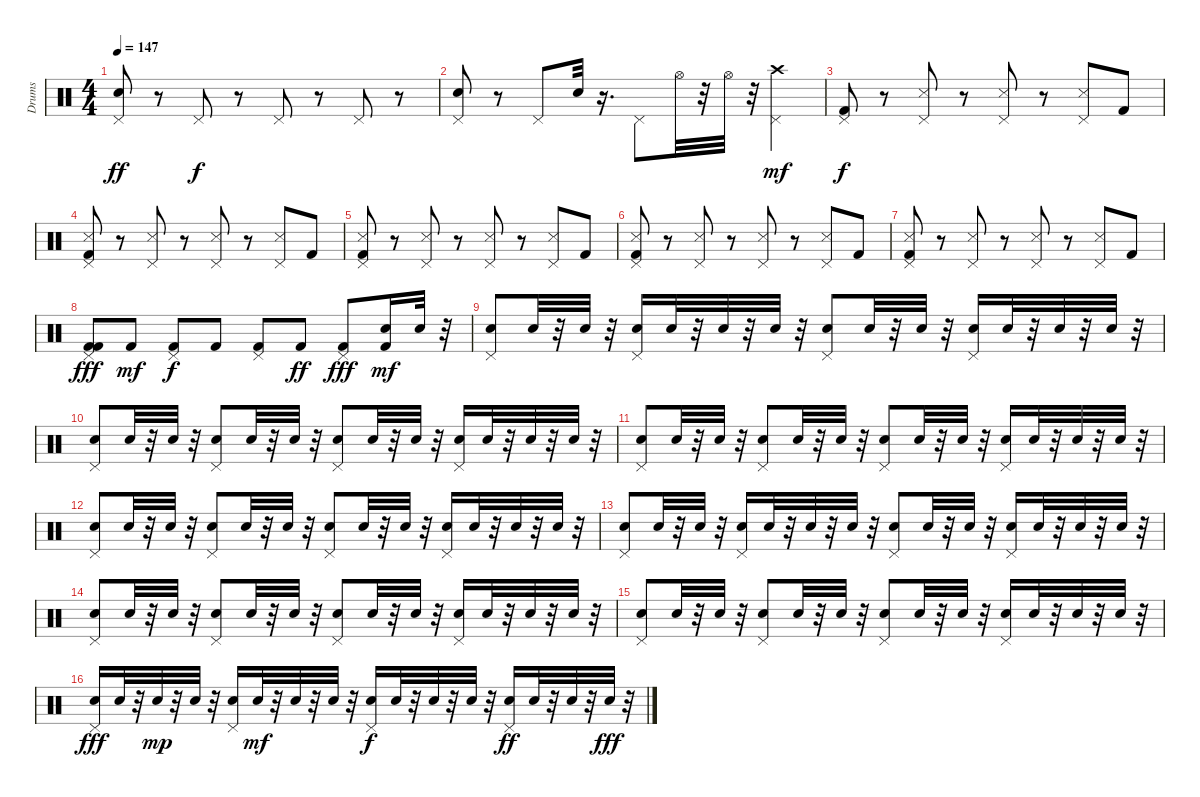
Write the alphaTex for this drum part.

\track ("Drums" "Drums") {instrument percussion}
\staff {score}
\articulation defaults
\ts (4 4)
\tempo 147
\clef neutral
\ks c
("Pedal Hi-Hat (hit)" "Snare (hit) 2").8{dy ff} r.8 "Pedal Hi-Hat (hit)".8{dy f} r.8 "Pedal Hi-Hat (hit)".8 r.8 "Pedal Hi-Hat (hit)".8 r.8 |
("Pedal Hi-Hat (hit)" "Snare (hit) 2").8 r.8 "Pedal Hi-Hat (hit)".8 "Snare (hit) 2".32 r.16{d} "Pedal Hi-Hat (hit)".8 "Hi-Hat (open)".32 r.32 "Hi-Hat (open)".32 r.32 ("Pedal Hi-Hat (hit)" "Crash high (hit)").4{dy mf} |
("Pedal Hi-Hat (hit)" "Kick (hit) 2").8{dy f} r.8 ("Pedal Hi-Hat (hit)" "Snare (side stick) 3").8 r.8 ("Pedal Hi-Hat (hit)" "Snare (side stick) 3").8 r.8 ("Pedal Hi-Hat (hit)" "Snare (side stick) 3").8 "Kick (hit) 2".8 |
("Pedal Hi-Hat (hit)" "Kick (hit) 2" "Snare (side stick) 3").8 r.8 ("Pedal Hi-Hat (hit)" "Snare (side stick) 3").8 r.8 ("Pedal Hi-Hat (hit)" "Snare (side stick) 3").8 r.8 ("Pedal Hi-Hat (hit)" "Snare (side stick) 3").8 "Kick (hit) 2".8 |
("Pedal Hi-Hat (hit)" "Kick (hit) 2" "Snare (side stick) 3").8 r.8 ("Pedal Hi-Hat (hit)" "Snare (side stick) 3").8 r.8 ("Pedal Hi-Hat (hit)" "Snare (side stick) 3").8 r.8 ("Pedal Hi-Hat (hit)" "Snare (side stick) 3").8 "Kick (hit) 2".8 |
("Pedal Hi-Hat (hit)" "Kick (hit) 2" "Snare (side stick) 3").8 r.8 ("Pedal Hi-Hat (hit)" "Snare (side stick) 3").8 r.8 ("Pedal Hi-Hat (hit)" "Snare (side stick) 3").8 r.8 ("Pedal Hi-Hat (hit)" "Snare (side stick) 3").8 "Kick (hit) 2".8 |
("Pedal Hi-Hat (hit)" "Kick (hit) 2" "Snare (side stick) 3").8 r.8 ("Pedal Hi-Hat (hit)" "Snare (side stick) 3").8 r.8 ("Pedal Hi-Hat (hit)" "Snare (side stick) 3").8 r.8 ("Pedal Hi-Hat (hit)" "Snare (side stick) 3").8 "Kick (hit) 2".8 |
("Pedal Hi-Hat (hit)" "Kick (hit) 2" "Kick (hit) 2").8{dy fff} "Kick (hit) 2".8{dy mf} ("Pedal Hi-Hat (hit)" "Kick (hit) 2").8{dy f} "Kick (hit) 2".8 ("Pedal Hi-Hat (hit)" "Kick (hit) 2").8 "Kick (hit) 2".8{dy ff} ("Pedal Hi-Hat (hit)" "Kick (hit) 2").8{dy fff} ("Kick (hit) 2" "Snare (hit) 2").16{dy mf} "Snare (hit) 2".32 r.32 |
("Pedal Hi-Hat (hit)" "Snare (hit) 2").8 "Snare (hit) 2".32 r.32 "Snare (hit) 2".32 r.32 ("Pedal Hi-Hat (hit)" "Snare (hit) 2").16 "Snare (hit) 2".32 r.32 "Snare (hit) 2".32 r.32 "Snare (hit) 2".32 r.32 ("Pedal Hi-Hat (hit)" "Snare (hit) 2").8 "Snare (hit) 2".32 r.32 "Snare (hit) 2".32 r.32 ("Pedal Hi-Hat (hit)" "Snare (hit) 2").16 "Snare (hit) 2".32 r.32 "Snare (hit) 2".32 r.32 "Snare (hit) 2".32 r.32 |
("Pedal Hi-Hat (hit)" "Snare (hit) 2").8 "Snare (hit) 2".32 r.32 "Snare (hit) 2".32 r.32 ("Pedal Hi-Hat (hit)" "Snare (hit) 2").8 "Snare (hit) 2".32 r.32 "Snare (hit) 2".32 r.32 ("Pedal Hi-Hat (hit)" "Snare (hit) 2").8 "Snare (hit) 2".32 r.32 "Snare (hit) 2".32 r.32 ("Pedal Hi-Hat (hit)" "Snare (hit) 2").16 "Snare (hit) 2".32 r.32 "Snare (hit) 2".32 r.32 "Snare (hit) 2".32 r.32 |
("Pedal Hi-Hat (hit)" "Snare (hit) 2").8 "Snare (hit) 2".32 r.32 "Snare (hit) 2".32 r.32 ("Pedal Hi-Hat (hit)" "Snare (hit) 2").8 "Snare (hit) 2".32 r.32 "Snare (hit) 2".32 r.32 ("Pedal Hi-Hat (hit)" "Snare (hit) 2").8 "Snare (hit) 2".32 r.32 "Snare (hit) 2".32 r.32 ("Pedal Hi-Hat (hit)" "Snare (hit) 2").16 "Snare (hit) 2".32 r.32 "Snare (hit) 2".32 r.32 "Snare (hit) 2".32 r.32 |
("Pedal Hi-Hat (hit)" "Snare (hit) 2").8 "Snare (hit) 2".32 r.32 "Snare (hit) 2".32 r.32 ("Pedal Hi-Hat (hit)" "Snare (hit) 2").8 "Snare (hit) 2".32 r.32 "Snare (hit) 2".32 r.32 ("Pedal Hi-Hat (hit)" "Snare (hit) 2").8 "Snare (hit) 2".32 r.32 "Snare (hit) 2".32 r.32 ("Pedal Hi-Hat (hit)" "Snare (hit) 2").16 "Snare (hit) 2".32 r.32 "Snare (hit) 2".32 r.32 "Snare (hit) 2".32 r.32 |
("Pedal Hi-Hat (hit)" "Snare (hit) 2").8 "Snare (hit) 2".32 r.32 "Snare (hit) 2".32 r.32 ("Pedal Hi-Hat (hit)" "Snare (hit) 2").16 "Snare (hit) 2".32 r.32 "Snare (hit) 2".32 r.32 "Snare (hit) 2".32 r.32 ("Pedal Hi-Hat (hit)" "Snare (hit) 2").8 "Snare (hit) 2".32 r.32 "Snare (hit) 2".32 r.32 ("Pedal Hi-Hat (hit)" "Snare (hit) 2").16 "Snare (hit) 2".32 r.32 "Snare (hit) 2".32 r.32 "Snare (hit) 2".32 r.32 |
("Pedal Hi-Hat (hit)" "Snare (hit) 2").8 "Snare (hit) 2".32 r.32 "Snare (hit) 2".32 r.32 ("Pedal Hi-Hat (hit)" "Snare (hit) 2").8 "Snare (hit) 2".32 r.32 "Snare (hit) 2".32 r.32 ("Pedal Hi-Hat (hit)" "Snare (hit) 2").8 "Snare (hit) 2".32 r.32 "Snare (hit) 2".32 r.32 ("Pedal Hi-Hat (hit)" "Snare (hit) 2").16 "Snare (hit) 2".32 r.32 "Snare (hit) 2".32 r.32 "Snare (hit) 2".32 r.32 |
("Pedal Hi-Hat (hit)" "Snare (hit) 2").8 "Snare (hit) 2".32 r.32 "Snare (hit) 2".32 r.32 ("Pedal Hi-Hat (hit)" "Snare (hit) 2").8 "Snare (hit) 2".32 r.32 "Snare (hit) 2".32 r.32 ("Pedal Hi-Hat (hit)" "Snare (hit) 2").8 "Snare (hit) 2".32 r.32 "Snare (hit) 2".32 r.32 ("Pedal Hi-Hat (hit)" "Snare (hit) 2").16 "Snare (hit) 2".32 r.32 "Snare (hit) 2".32 r.32 "Snare (hit) 2".32 r.32 |
("Pedal Hi-Hat (hit)" "Snare (hit) 2").16{dy fff} "Snare (hit) 2".32 r.32 "Snare (hit) 2".32{dy mp} r.32 "Snare (hit) 2".32 r.32 ("Pedal Hi-Hat (hit)" "Snare (hit) 2").16 "Snare (hit) 2".32{dy mf} r.32 "Snare (hit) 2".32 r.32 "Snare (hit) 2".32 r.32 ("Pedal Hi-Hat (hit)" "Snare (hit) 2").16{dy f} "Snare (hit) 2".32 r.32 "Snare (hit) 2".32 r.32 "Snare (hit) 2".32 r.32 ("Pedal Hi-Hat (hit)" "Snare (hit) 2").16{dy ff} "Snare (hit) 2".32 r.32 "Snare (hit) 2".32 r.32 "Snare (hit) 2".32{dy fff} r.32
